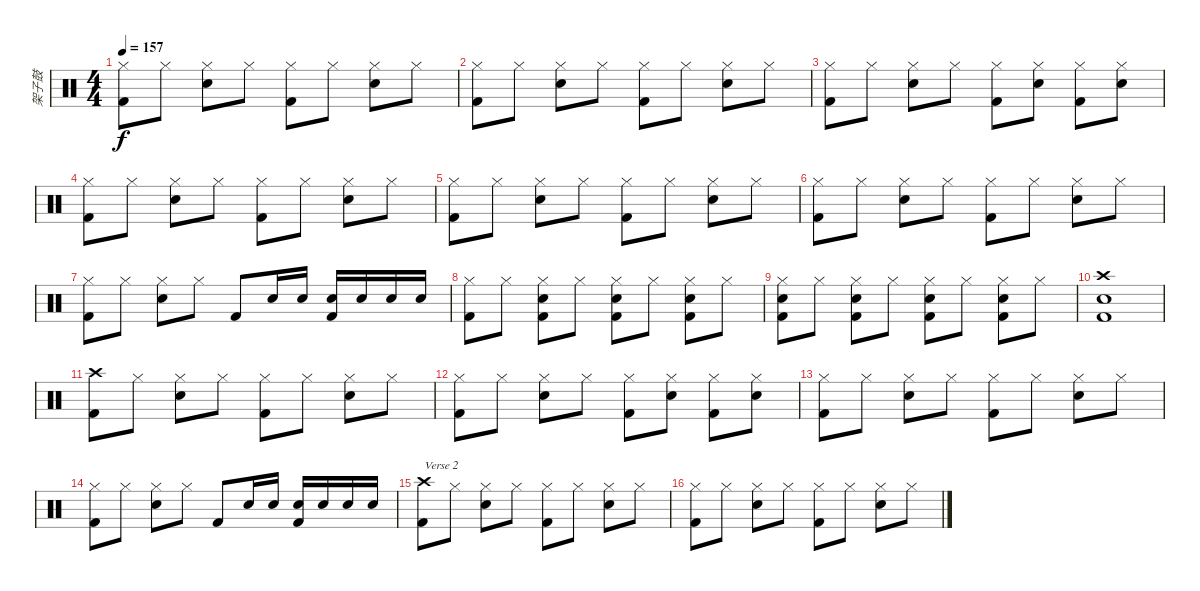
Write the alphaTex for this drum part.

\track ("架子鼓" "架子鼓") {instrument percussion}
\staff {score}
\articulation defaults
\ts (4 4)
\tempo 157
\clef neutral
\ks c
("Hi-Hat (closed)" "Kick (hit) 2").8{dy f} "Hi-Hat (closed)".8 ("Hi-Hat (closed)" "Snare (hit) 2").8 "Hi-Hat (closed)".8 ("Hi-Hat (closed)" "Kick (hit) 2").8 "Hi-Hat (closed)".8 ("Hi-Hat (closed)" "Snare (hit) 2").8 "Hi-Hat (closed)".8 |
("Hi-Hat (closed)" "Kick (hit) 2").8 "Hi-Hat (closed)".8 ("Hi-Hat (closed)" "Snare (hit) 2").8 "Hi-Hat (closed)".8 ("Hi-Hat (closed)" "Kick (hit) 2").8 "Hi-Hat (closed)".8 ("Hi-Hat (closed)" "Snare (hit) 2").8 "Hi-Hat (closed)".8 |
("Hi-Hat (closed)" "Kick (hit) 2").8 "Hi-Hat (closed)".8 ("Hi-Hat (closed)" "Snare (hit) 2").8 "Hi-Hat (closed)".8 ("Hi-Hat (closed)" "Kick (hit) 2").8 ("Hi-Hat (closed)" "Snare (hit) 2").8 ("Hi-Hat (closed)" "Kick (hit) 2").8 ("Hi-Hat (closed)" "Snare (hit) 2").8 |
("Hi-Hat (closed)" "Kick (hit) 2").8 "Hi-Hat (closed)".8 ("Hi-Hat (closed)" "Snare (hit) 2").8 "Hi-Hat (closed)".8 ("Hi-Hat (closed)" "Kick (hit) 2").8 "Hi-Hat (closed)".8 ("Hi-Hat (closed)" "Snare (hit) 2").8 "Hi-Hat (closed)".8 |
("Hi-Hat (closed)" "Kick (hit) 2").8 "Hi-Hat (closed)".8 ("Hi-Hat (closed)" "Snare (hit) 2").8 "Hi-Hat (closed)".8 ("Hi-Hat (closed)" "Kick (hit) 2").8 "Hi-Hat (closed)".8 ("Hi-Hat (closed)" "Snare (hit) 2").8 "Hi-Hat (closed)".8 |
("Hi-Hat (closed)" "Kick (hit) 2").8 "Hi-Hat (closed)".8 ("Hi-Hat (closed)" "Snare (hit) 2").8 "Hi-Hat (closed)".8 ("Hi-Hat (closed)" "Kick (hit) 2").8 "Hi-Hat (closed)".8 ("Hi-Hat (closed)" "Snare (hit) 2").8 "Hi-Hat (closed)".8 |
("Hi-Hat (closed)" "Kick (hit) 2").8 "Hi-Hat (closed)".8 ("Hi-Hat (closed)" "Snare (hit) 2").8 "Hi-Hat (closed)".8 "Kick (hit) 2".8 "Snare (hit) 2".16 "Snare (hit) 2".16 ("Snare (hit) 2" "Kick (hit) 2").16 "Snare (hit) 2".16 "Snare (hit) 2".16 "Snare (hit) 2".16 |
("Hi-Hat (closed)" "Kick (hit) 2").8 "Hi-Hat (closed)".8 ("Hi-Hat (closed)" "Snare (hit) 2" "Kick (hit) 2").8 "Hi-Hat (closed)".8 ("Hi-Hat (closed)" "Snare (hit) 2" "Kick (hit) 2").8 "Hi-Hat (closed)".8 ("Hi-Hat (closed)" "Snare (hit) 2" "Kick (hit) 2").8 "Hi-Hat (closed)".8 |
("Hi-Hat (closed)" "Snare (hit) 2" "Kick (hit) 2").8 "Hi-Hat (closed)".8 ("Hi-Hat (closed)" "Snare (hit) 2" "Kick (hit) 2").8 "Hi-Hat (closed)".8 ("Hi-Hat (closed)" "Snare (hit) 2" "Kick (hit) 2").8 "Hi-Hat (closed)".8 ("Hi-Hat (closed)" "Snare (hit) 2" "Kick (hit) 2").8 "Hi-Hat (closed)".8 |
("Crash high (hit)" "Snare (hit) 2" "Kick (hit) 2").1 |
("Crash high (hit)" "Kick (hit) 2").8 "Hi-Hat (closed)".8 ("Hi-Hat (closed)" "Snare (hit) 2").8 "Hi-Hat (closed)".8 ("Hi-Hat (closed)" "Kick (hit) 2").8 "Hi-Hat (closed)".8 ("Hi-Hat (closed)" "Snare (hit) 2").8 "Hi-Hat (closed)".8 |
("Hi-Hat (closed)" "Kick (hit) 2").8 "Hi-Hat (closed)".8 ("Hi-Hat (closed)" "Snare (hit) 2").8 "Hi-Hat (closed)".8 ("Hi-Hat (closed)" "Kick (hit) 2").8 ("Hi-Hat (closed)" "Snare (hit) 2").8 ("Hi-Hat (closed)" "Kick (hit) 2").8 ("Hi-Hat (closed)" "Snare (hit) 2").8 |
("Hi-Hat (closed)" "Kick (hit) 2").8 "Hi-Hat (closed)".8 ("Hi-Hat (closed)" "Snare (hit) 2").8 "Hi-Hat (closed)".8 ("Hi-Hat (closed)" "Kick (hit) 2").8 "Hi-Hat (closed)".8 ("Hi-Hat (closed)" "Snare (hit) 2").8 "Hi-Hat (closed)".8 |
("Hi-Hat (closed)" "Kick (hit) 2").8 "Hi-Hat (closed)".8 ("Hi-Hat (closed)" "Snare (hit) 2").8 "Hi-Hat (closed)".8 "Kick (hit) 2".8 "Snare (hit) 2".16 "Snare (hit) 2".16 ("Snare (hit) 2" "Kick (hit) 2").16 "Snare (hit) 2".16 "Snare (hit) 2".16 "Snare (hit) 2".16 |
("Crash high (hit)" "Kick (hit) 2").8{txt "Verse 2"} "Hi-Hat (closed)".8 ("Hi-Hat (closed)" "Snare (hit) 2").8 "Hi-Hat (closed)".8 ("Hi-Hat (closed)" "Kick (hit) 2").8 "Hi-Hat (closed)".8 ("Hi-Hat (closed)" "Snare (hit) 2").8 "Hi-Hat (closed)".8 |
("Hi-Hat (closed)" "Kick (hit) 2").8 "Hi-Hat (closed)".8 ("Hi-Hat (closed)" "Snare (hit) 2").8 "Hi-Hat (closed)".8 ("Hi-Hat (closed)" "Kick (hit) 2").8 "Hi-Hat (closed)".8 ("Hi-Hat (closed)" "Snare (hit) 2").8 "Hi-Hat (closed)".8
